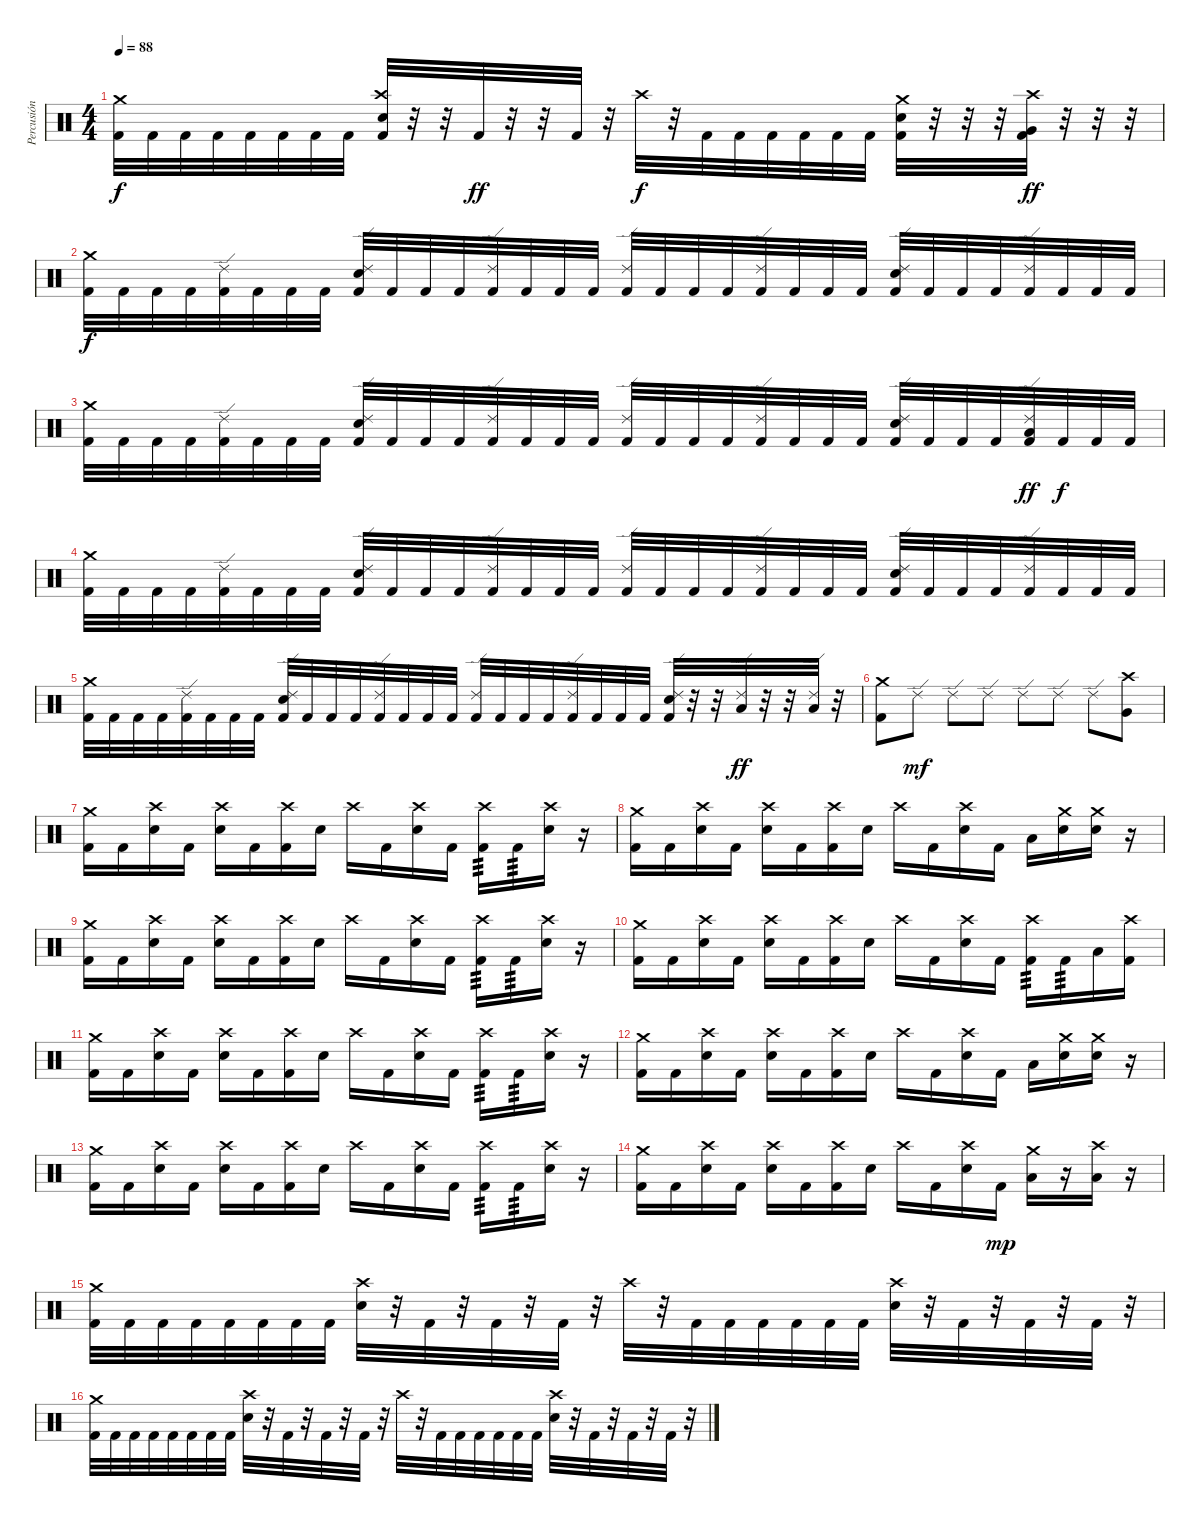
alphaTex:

\track ("Percusión" "Percusión") {instrument percussion}
\staff {score}
\articulation defaults
\ts (4 4)
\tempo 88
\clef neutral
\ks c
("Crash medium (hit)" "Kick (hit) 2").32{dy f} "Kick (hit) 2".32 "Kick (hit) 2".32 "Kick (hit) 2".32 "Kick (hit) 2".32 "Kick (hit) 2".32 "Kick (hit) 2".32 "Kick (hit) 2".32 ("Crash high (hit)" "Electric Snare (hit)" "Kick (hit) 2").32 r.32 r.32 "Kick (hit) 2".32{dy ff} r.32 r.32 "Kick (hit) 2".32 r.32 "Crash high (hit)".32{dy f} r.32 "Kick (hit) 2".32 "Kick (hit) 2".32 "Kick (hit) 2".32 "Kick (hit) 2".32 "Kick (hit) 2".32 "Kick (hit) 2".32 ("Crash medium (hit)" "Electric Snare (hit)" "Kick (hit) 2").32 r.32 r.32 r.32 ("Crash high (hit)" "Very Low Tom (hit)" "Kick (hit) 2").32{dy ff} r.32 r.32 r.32 |
("Crash medium (hit)" "Kick (hit) 2").32{dy f} "Kick (hit) 2".32 "Kick (hit) 2".32 "Kick (hit) 2".32 ("Ride (edge) 2" "Kick (hit) 2").32 "Kick (hit) 2".32 "Kick (hit) 2".32 "Kick (hit) 2".32 ("Ride (edge) 2" "Electric Snare (hit)" "Kick (hit) 2").32 "Kick (hit) 2".32 "Kick (hit) 2".32 "Kick (hit) 2".32 ("Ride (edge) 2" "Kick (hit) 2").32 "Kick (hit) 2".32 "Kick (hit) 2".32 "Kick (hit) 2".32 ("Ride (edge) 2" "Kick (hit) 2").32 "Kick (hit) 2".32 "Kick (hit) 2".32 "Kick (hit) 2".32 ("Ride (edge) 2" "Kick (hit) 2").32 "Kick (hit) 2".32 "Kick (hit) 2".32 "Kick (hit) 2".32 ("Ride (edge) 2" "Electric Snare (hit)" "Kick (hit) 2").32 "Kick (hit) 2".32 "Kick (hit) 2".32 "Kick (hit) 2".32 ("Ride (edge) 2" "Kick (hit) 2").32 "Kick (hit) 2".32 "Kick (hit) 2".32 "Kick (hit) 2".32 |
("Crash medium (hit)" "Kick (hit) 2").32 "Kick (hit) 2".32 "Kick (hit) 2".32 "Kick (hit) 2".32 ("Ride (edge) 2" "Kick (hit) 2").32 "Kick (hit) 2".32 "Kick (hit) 2".32 "Kick (hit) 2".32 ("Ride (edge) 2" "Electric Snare (hit)" "Kick (hit) 2").32 "Kick (hit) 2".32 "Kick (hit) 2".32 "Kick (hit) 2".32 ("Ride (edge) 2" "Kick (hit) 2").32 "Kick (hit) 2".32 "Kick (hit) 2".32 "Kick (hit) 2".32 ("Ride (edge) 2" "Kick (hit) 2").32 "Kick (hit) 2".32 "Kick (hit) 2".32 "Kick (hit) 2".32 ("Ride (edge) 2" "Kick (hit) 2").32 "Kick (hit) 2".32 "Kick (hit) 2".32 "Kick (hit) 2".32 ("Ride (edge) 2" "Electric Snare (hit)" "Kick (hit) 2").32 "Kick (hit) 2".32 "Kick (hit) 2".32 "Kick (hit) 2".32 ("Ride (edge) 2" "Low Tom (hit)" "Kick (hit) 2").32{dy ff} "Kick (hit) 2".32{dy f} "Kick (hit) 2".32 "Kick (hit) 2".32 |
("Crash medium (hit)" "Kick (hit) 2").32 "Kick (hit) 2".32 "Kick (hit) 2".32 "Kick (hit) 2".32 ("Ride (edge) 2" "Kick (hit) 2").32 "Kick (hit) 2".32 "Kick (hit) 2".32 "Kick (hit) 2".32 ("Ride (edge) 2" "Electric Snare (hit)" "Kick (hit) 2").32 "Kick (hit) 2".32 "Kick (hit) 2".32 "Kick (hit) 2".32 ("Ride (edge) 2" "Kick (hit) 2").32 "Kick (hit) 2".32 "Kick (hit) 2".32 "Kick (hit) 2".32 ("Ride (edge) 2" "Kick (hit) 2").32 "Kick (hit) 2".32 "Kick (hit) 2".32 "Kick (hit) 2".32 ("Ride (edge) 2" "Kick (hit) 2").32 "Kick (hit) 2".32 "Kick (hit) 2".32 "Kick (hit) 2".32 ("Ride (edge) 2" "Electric Snare (hit)" "Kick (hit) 2").32 "Kick (hit) 2".32 "Kick (hit) 2".32 "Kick (hit) 2".32 ("Ride (edge) 2" "Kick (hit) 2").32 "Kick (hit) 2".32 "Kick (hit) 2".32 "Kick (hit) 2".32 |
("Crash medium (hit)" "Kick (hit) 2").32 "Kick (hit) 2".32 "Kick (hit) 2".32 "Kick (hit) 2".32 ("Ride (edge) 2" "Kick (hit) 2").32 "Kick (hit) 2".32 "Kick (hit) 2".32 "Kick (hit) 2".32 ("Ride (edge) 2" "Electric Snare (hit)" "Kick (hit) 2").32 "Kick (hit) 2".32 "Kick (hit) 2".32 "Kick (hit) 2".32 ("Ride (edge) 2" "Kick (hit) 2").32 "Kick (hit) 2".32 "Kick (hit) 2".32 "Kick (hit) 2".32 ("Ride (edge) 2" "Kick (hit) 2").32 "Kick (hit) 2".32 "Kick (hit) 2".32 "Kick (hit) 2".32 ("Ride (edge) 2" "Kick (hit) 2").32 "Kick (hit) 2".32 "Kick (hit) 2".32 "Kick (hit) 2".32 ("Ride (edge) 2" "Electric Snare (hit)" "Kick (hit) 2").32 r.32 r.32 ("Ride (edge) 2" "Low Tom (hit)").32{dy ff} r.32 r.32 ("Ride (edge) 2" "Low Tom (hit)").32 r.32 |
("Crash medium (hit)" "Kick (hit) 2").8 "Ride (edge) 2".8{dy mf} "Ride (edge) 2".8 "Ride (edge) 2".8 "Ride (edge) 2".8 "Ride (edge) 2".8 "Ride (edge) 2".8 ("Crash high (hit)" "Very Low Tom (hit)").8 |
("Crash medium (hit)" "Kick (hit) 2").16 "Kick (hit) 2".16 ("Crash high (hit)" "Electric Snare (hit)").16 "Kick (hit) 2".16 ("Crash high (hit)" "Electric Snare (hit)").16 "Kick (hit) 2".16 ("Crash high (hit)" "Kick (hit) 2").16 "Electric Snare (hit)".16 "Crash high (hit)".16 "Kick (hit) 2".16 ("Crash high (hit)" "Electric Snare (hit)").16 "Kick (hit) 2".16 ("Crash high (hit)" "Kick (hit) 2").16{tp 3} "Kick (hit) 2".16{tp 3} ("Crash high (hit)" "Electric Snare (hit)").16 r.16 |
("Crash medium (hit)" "Kick (hit) 2").16 "Kick (hit) 2".16 ("Crash high (hit)" "Electric Snare (hit)").16 "Kick (hit) 2".16 ("Crash high (hit)" "Electric Snare (hit)").16 "Kick (hit) 2".16 ("Crash high (hit)" "Kick (hit) 2").16 "Electric Snare (hit)".16 "Crash high (hit)".16 "Kick (hit) 2".16 ("Crash high (hit)" "Electric Snare (hit)").16 "Kick (hit) 2".16 "Low Tom (hit)".16 ("Crash medium (hit)" "Electric Snare (hit)").16 ("Crash medium (hit)" "Electric Snare (hit)").16 r.16 |
("Crash medium (hit)" "Kick (hit) 2").16 "Kick (hit) 2".16 ("Crash high (hit)" "Electric Snare (hit)").16 "Kick (hit) 2".16 ("Crash high (hit)" "Electric Snare (hit)").16 "Kick (hit) 2".16 ("Crash high (hit)" "Kick (hit) 2").16 "Electric Snare (hit)".16 "Crash high (hit)".16 "Kick (hit) 2".16 ("Crash high (hit)" "Electric Snare (hit)").16 "Kick (hit) 2".16 ("Crash high (hit)" "Kick (hit) 2").16{tp 3} "Kick (hit) 2".16{tp 3} ("Crash high (hit)" "Electric Snare (hit)").16 r.16 |
("Crash medium (hit)" "Kick (hit) 2").16 "Kick (hit) 2".16 ("Crash high (hit)" "Electric Snare (hit)").16 "Kick (hit) 2".16 ("Crash high (hit)" "Electric Snare (hit)").16 "Kick (hit) 2".16 ("Crash high (hit)" "Kick (hit) 2").16 "Electric Snare (hit)".16 "Crash high (hit)".16 "Kick (hit) 2".16 ("Crash high (hit)" "Electric Snare (hit)").16 "Kick (hit) 2".16 ("Crash high (hit)" "Kick (hit) 2").16{tp 3} "Kick (hit) 2".16{tp 3} "Low Tom (hit)".16 ("Crash high (hit)" "Kick (hit) 2").16 |
("Crash medium (hit)" "Kick (hit) 2").16 "Kick (hit) 2".16 ("Crash high (hit)" "Electric Snare (hit)").16 "Kick (hit) 2".16 ("Crash high (hit)" "Electric Snare (hit)").16 "Kick (hit) 2".16 ("Crash high (hit)" "Kick (hit) 2").16 "Electric Snare (hit)".16 "Crash high (hit)".16 "Kick (hit) 2".16 ("Crash high (hit)" "Electric Snare (hit)").16 "Kick (hit) 2".16 ("Crash high (hit)" "Kick (hit) 2").16{tp 3} "Kick (hit) 2".16{tp 3} ("Crash high (hit)" "Electric Snare (hit)").16 r.16 |
("Crash medium (hit)" "Kick (hit) 2").16 "Kick (hit) 2".16 ("Crash high (hit)" "Electric Snare (hit)").16 "Kick (hit) 2".16 ("Crash high (hit)" "Electric Snare (hit)").16 "Kick (hit) 2".16 ("Crash high (hit)" "Kick (hit) 2").16 "Electric Snare (hit)".16 "Crash high (hit)".16 "Kick (hit) 2".16 ("Crash high (hit)" "Electric Snare (hit)").16 "Kick (hit) 2".16 "Low Tom (hit)".16 ("Crash medium (hit)" "Electric Snare (hit)").16 ("Crash medium (hit)" "Electric Snare (hit)").16 r.16 |
("Crash medium (hit)" "Kick (hit) 2").16 "Kick (hit) 2".16 ("Crash high (hit)" "Electric Snare (hit)").16 "Kick (hit) 2".16 ("Crash high (hit)" "Electric Snare (hit)").16 "Kick (hit) 2".16 ("Crash high (hit)" "Kick (hit) 2").16 "Electric Snare (hit)".16 "Crash high (hit)".16 "Kick (hit) 2".16 ("Crash high (hit)" "Electric Snare (hit)").16 "Kick (hit) 2".16 ("Crash high (hit)" "Kick (hit) 2").16{tp 3} "Kick (hit) 2".16{tp 3} ("Crash high (hit)" "Electric Snare (hit)").16 r.16 |
("Crash medium (hit)" "Kick (hit) 2").16 "Kick (hit) 2".16 ("Crash high (hit)" "Electric Snare (hit)").16 "Kick (hit) 2".16 ("Crash high (hit)" "Electric Snare (hit)").16 "Kick (hit) 2".16 ("Crash high (hit)" "Kick (hit) 2").16 "Electric Snare (hit)".16 "Crash high (hit)".16 "Kick (hit) 2".16 ("Crash high (hit)" "Electric Snare (hit)").16 "Kick (hit) 2".16{dy mp} ("Crash medium (hit)" "Low Floor Tom (hit)").16 r.16 ("Crash high (hit)" "Low Tom (hit)").16 r.16 |
("Crash medium (hit)" "Kick (hit) 2").32 "Kick (hit) 2".32 "Kick (hit) 2".32 "Kick (hit) 2".32 "Kick (hit) 2".32 "Kick (hit) 2".32 "Kick (hit) 2".32 "Kick (hit) 2".32 ("Crash high (hit)" "Electric Snare (hit)").32 r.32 "Kick (hit) 2".32 r.32 "Kick (hit) 2".32 r.32 "Kick (hit) 2".32 r.32 "Crash high (hit)".32 r.32 "Kick (hit) 2".32 "Kick (hit) 2".32 "Kick (hit) 2".32 "Kick (hit) 2".32 "Kick (hit) 2".32 "Kick (hit) 2".32 ("Crash high (hit)" "Electric Snare (hit)").32 r.32 "Kick (hit) 2".32 r.32 "Kick (hit) 2".32 r.32 "Kick (hit) 2".32 r.32 |
("Crash medium (hit)" "Kick (hit) 2").32 "Kick (hit) 2".32 "Kick (hit) 2".32 "Kick (hit) 2".32 "Kick (hit) 2".32 "Kick (hit) 2".32 "Kick (hit) 2".32 "Kick (hit) 2".32 ("Crash high (hit)" "Electric Snare (hit)").32 r.32 "Kick (hit) 2".32 r.32 "Kick (hit) 2".32 r.32 "Kick (hit) 2".32 r.32 "Crash high (hit)".32 r.32 "Kick (hit) 2".32 "Kick (hit) 2".32 "Kick (hit) 2".32 "Kick (hit) 2".32 "Kick (hit) 2".32 "Kick (hit) 2".32 ("Crash high (hit)" "Electric Snare (hit)").32 r.32 "Kick (hit) 2".32 r.32 "Kick (hit) 2".32 r.32 "Kick (hit) 2".32 r.32
